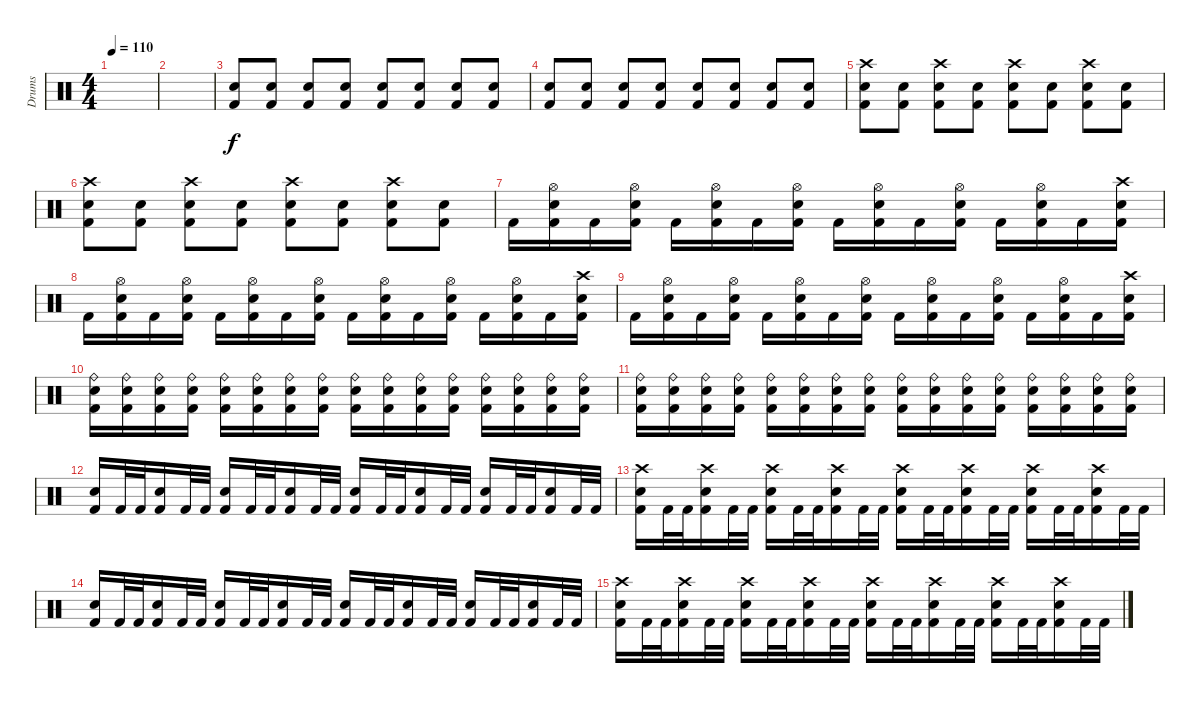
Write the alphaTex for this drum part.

\track ("Drums" "Drums") {instrument percussion}
\staff {score}
\articulation defaults
\ts (4 4)
\tempo 110
\clef neutral
\ks c
|
|
("Electric Snare (hit)" "Kick (hit) 2").8 ("Electric Snare (hit)" "Kick (hit) 2").8 ("Electric Snare (hit)" "Kick (hit) 2").8 ("Electric Snare (hit)" "Kick (hit) 2").8 ("Electric Snare (hit)" "Kick (hit) 2").8 ("Electric Snare (hit)" "Kick (hit) 2").8 ("Electric Snare (hit)" "Kick (hit) 2").8 ("Electric Snare (hit)" "Kick (hit) 2").8 |
("Electric Snare (hit)" "Kick (hit) 2").8 ("Electric Snare (hit)" "Kick (hit) 2").8 ("Electric Snare (hit)" "Kick (hit) 2").8 ("Electric Snare (hit)" "Kick (hit) 2").8 ("Electric Snare (hit)" "Kick (hit) 2").8 ("Electric Snare (hit)" "Kick (hit) 2").8 ("Electric Snare (hit)" "Kick (hit) 2").8 ("Electric Snare (hit)" "Kick (hit) 2").8 |
("Crash high (hit)" "Electric Snare (hit)" "Kick (hit) 2").8 ("Electric Snare (hit)" "Kick (hit) 2").8 ("Crash high (hit)" "Electric Snare (hit)" "Kick (hit) 2").8 ("Electric Snare (hit)" "Kick (hit) 2").8 ("Crash high (hit)" "Electric Snare (hit)" "Kick (hit) 2").8 ("Electric Snare (hit)" "Kick (hit) 2").8 ("Crash high (hit)" "Electric Snare (hit)" "Kick (hit) 2").8 ("Electric Snare (hit)" "Kick (hit) 2").8 |
("Crash high (hit)" "Electric Snare (hit)" "Kick (hit) 2").8 ("Electric Snare (hit)" "Kick (hit) 2").8 ("Crash high (hit)" "Electric Snare (hit)" "Kick (hit) 2").8 ("Electric Snare (hit)" "Kick (hit) 2").8 ("Crash high (hit)" "Electric Snare (hit)" "Kick (hit) 2").8 ("Electric Snare (hit)" "Kick (hit) 2").8 ("Crash high (hit)" "Electric Snare (hit)" "Kick (hit) 2").8 ("Electric Snare (hit)" "Kick (hit) 2").8 |
"Kick (hit) 2".16 ("Hi-Hat (open)" "Electric Snare (hit)" "Kick (hit) 2").16 "Kick (hit) 2".16 ("Hi-Hat (open)" "Electric Snare (hit)" "Kick (hit) 2").16 "Kick (hit) 2".16 ("Hi-Hat (open)" "Electric Snare (hit)" "Kick (hit) 2").16 "Kick (hit) 2".16 ("Hi-Hat (open)" "Electric Snare (hit)" "Kick (hit) 2").16 "Kick (hit) 2".16 ("Hi-Hat (open)" "Electric Snare (hit)" "Kick (hit) 2").16 "Kick (hit) 2".16 ("Hi-Hat (open)" "Electric Snare (hit)" "Kick (hit) 2").16 "Kick (hit) 2".16 ("Hi-Hat (open)" "Electric Snare (hit)" "Kick (hit) 2").16 "Kick (hit) 2".16 ("Crash high (hit)" "Electric Snare (hit)" "Kick (hit) 2").16 |
"Kick (hit) 2".16 ("Hi-Hat (open)" "Electric Snare (hit)" "Kick (hit) 2").16 "Kick (hit) 2".16 ("Hi-Hat (open)" "Electric Snare (hit)" "Kick (hit) 2").16 "Kick (hit) 2".16 ("Hi-Hat (open)" "Electric Snare (hit)" "Kick (hit) 2").16 "Kick (hit) 2".16 ("Hi-Hat (open)" "Electric Snare (hit)" "Kick (hit) 2").16 "Kick (hit) 2".16 ("Hi-Hat (open)" "Electric Snare (hit)" "Kick (hit) 2").16 "Kick (hit) 2".16 ("Hi-Hat (open)" "Electric Snare (hit)" "Kick (hit) 2").16 "Kick (hit) 2".16 ("Hi-Hat (open)" "Electric Snare (hit)" "Kick (hit) 2").16 "Kick (hit) 2".16 ("Crash high (hit)" "Electric Snare (hit)" "Kick (hit) 2").16 |
"Kick (hit) 2".16 ("Hi-Hat (open)" "Electric Snare (hit)" "Kick (hit) 2").16 "Kick (hit) 2".16 ("Hi-Hat (open)" "Electric Snare (hit)" "Kick (hit) 2").16 "Kick (hit) 2".16 ("Hi-Hat (open)" "Electric Snare (hit)" "Kick (hit) 2").16 "Kick (hit) 2".16 ("Hi-Hat (open)" "Electric Snare (hit)" "Kick (hit) 2").16 "Kick (hit) 2".16 ("Hi-Hat (open)" "Electric Snare (hit)" "Kick (hit) 2").16 "Kick (hit) 2".16 ("Hi-Hat (open)" "Electric Snare (hit)" "Kick (hit) 2").16 "Kick (hit) 2".16 ("Hi-Hat (open)" "Electric Snare (hit)" "Kick (hit) 2").16 "Kick (hit) 2".16 ("Crash high (hit)" "Electric Snare (hit)" "Kick (hit) 2").16 |
("Ride (bell)" "Electric Snare (hit)" "Kick (hit) 2").16 ("Ride (bell)" "Electric Snare (hit)" "Kick (hit) 2").16 ("Ride (bell)" "Electric Snare (hit)" "Kick (hit) 2").16 ("Ride (bell)" "Electric Snare (hit)" "Kick (hit) 2").16 ("Ride (bell)" "Electric Snare (hit)" "Kick (hit) 2").16 ("Ride (bell)" "Electric Snare (hit)" "Kick (hit) 2").16 ("Ride (bell)" "Electric Snare (hit)" "Kick (hit) 2").16 ("Ride (bell)" "Electric Snare (hit)" "Kick (hit) 2").16 ("Ride (bell)" "Electric Snare (hit)" "Kick (hit) 2").16 ("Ride (bell)" "Electric Snare (hit)" "Kick (hit) 2").16 ("Ride (bell)" "Electric Snare (hit)" "Kick (hit) 2").16 ("Ride (bell)" "Electric Snare (hit)" "Kick (hit) 2").16 ("Ride (bell)" "Electric Snare (hit)" "Kick (hit) 2").16 ("Ride (bell)" "Electric Snare (hit)" "Kick (hit) 2").16 ("Ride (bell)" "Electric Snare (hit)" "Kick (hit) 2").16 ("Ride (bell)" "Electric Snare (hit)" "Kick (hit) 2").16 |
("Ride (bell)" "Electric Snare (hit)" "Kick (hit) 2").16 ("Ride (bell)" "Electric Snare (hit)" "Kick (hit) 2").16 ("Ride (bell)" "Electric Snare (hit)" "Kick (hit) 2").16 ("Ride (bell)" "Electric Snare (hit)" "Kick (hit) 2").16 ("Ride (bell)" "Electric Snare (hit)" "Kick (hit) 2").16 ("Ride (bell)" "Electric Snare (hit)" "Kick (hit) 2").16 ("Ride (bell)" "Electric Snare (hit)" "Kick (hit) 2").16 ("Ride (bell)" "Electric Snare (hit)" "Kick (hit) 2").16 ("Ride (bell)" "Electric Snare (hit)" "Kick (hit) 2").16 ("Ride (bell)" "Electric Snare (hit)" "Kick (hit) 2").16 ("Ride (bell)" "Electric Snare (hit)" "Kick (hit) 2").16 ("Ride (bell)" "Electric Snare (hit)" "Kick (hit) 2").16 ("Ride (bell)" "Electric Snare (hit)" "Kick (hit) 2").16 ("Ride (bell)" "Electric Snare (hit)" "Kick (hit) 2").16 ("Ride (bell)" "Electric Snare (hit)" "Kick (hit) 2").16 ("Ride (bell)" "Electric Snare (hit)" "Kick (hit) 2").16 |
("Electric Snare (hit)" "Kick (hit) 2").16 "Kick (hit) 2".32 "Kick (hit) 2".32 ("Electric Snare (hit)" "Kick (hit) 2").16 "Kick (hit) 2".32 "Kick (hit) 2".32 ("Electric Snare (hit)" "Kick (hit) 2").16 "Kick (hit) 2".32 "Kick (hit) 2".32 ("Electric Snare (hit)" "Kick (hit) 2").16 "Kick (hit) 2".32 "Kick (hit) 2".32 ("Electric Snare (hit)" "Kick (hit) 2").16 "Kick (hit) 2".32 "Kick (hit) 2".32 ("Electric Snare (hit)" "Kick (hit) 2").16 "Kick (hit) 2".32 "Kick (hit) 2".32 ("Electric Snare (hit)" "Kick (hit) 2").16 "Kick (hit) 2".32 "Kick (hit) 2".32 ("Electric Snare (hit)" "Kick (hit) 2").16 "Kick (hit) 2".32 "Kick (hit) 2".32 |
("Crash high (hit)" "Electric Snare (hit)" "Kick (hit) 2").16 "Kick (hit) 2".32 "Kick (hit) 2".32 ("Crash high (hit)" "Electric Snare (hit)" "Kick (hit) 2").16 "Kick (hit) 2".32 "Kick (hit) 2".32 ("Crash high (hit)" "Electric Snare (hit)" "Kick (hit) 2").16 "Kick (hit) 2".32 "Kick (hit) 2".32 ("Crash high (hit)" "Electric Snare (hit)" "Kick (hit) 2").16 "Kick (hit) 2".32 "Kick (hit) 2".32 ("Crash high (hit)" "Electric Snare (hit)" "Kick (hit) 2").16 "Kick (hit) 2".32 "Kick (hit) 2".32 ("Crash high (hit)" "Electric Snare (hit)" "Kick (hit) 2").16 "Kick (hit) 2".32 "Kick (hit) 2".32 ("Crash high (hit)" "Electric Snare (hit)" "Kick (hit) 2").16 "Kick (hit) 2".32 "Kick (hit) 2".32 ("Crash high (hit)" "Electric Snare (hit)" "Kick (hit) 2").16 "Kick (hit) 2".32 "Kick (hit) 2".32 |
("Electric Snare (hit)" "Kick (hit) 2").16 "Kick (hit) 2".32 "Kick (hit) 2".32 ("Electric Snare (hit)" "Kick (hit) 2").16 "Kick (hit) 2".32 "Kick (hit) 2".32 ("Electric Snare (hit)" "Kick (hit) 2").16 "Kick (hit) 2".32 "Kick (hit) 2".32 ("Electric Snare (hit)" "Kick (hit) 2").16 "Kick (hit) 2".32 "Kick (hit) 2".32 ("Electric Snare (hit)" "Kick (hit) 2").16 "Kick (hit) 2".32 "Kick (hit) 2".32 ("Electric Snare (hit)" "Kick (hit) 2").16 "Kick (hit) 2".32 "Kick (hit) 2".32 ("Electric Snare (hit)" "Kick (hit) 2").16 "Kick (hit) 2".32 "Kick (hit) 2".32 ("Electric Snare (hit)" "Kick (hit) 2").16 "Kick (hit) 2".32 "Kick (hit) 2".32 |
("Crash high (hit)" "Electric Snare (hit)" "Kick (hit) 2").16 "Kick (hit) 2".32 "Kick (hit) 2".32 ("Crash high (hit)" "Electric Snare (hit)" "Kick (hit) 2").16 "Kick (hit) 2".32 "Kick (hit) 2".32 ("Crash high (hit)" "Electric Snare (hit)" "Kick (hit) 2").16 "Kick (hit) 2".32 "Kick (hit) 2".32 ("Crash high (hit)" "Electric Snare (hit)" "Kick (hit) 2").16 "Kick (hit) 2".32 "Kick (hit) 2".32 ("Crash high (hit)" "Electric Snare (hit)" "Kick (hit) 2").16 "Kick (hit) 2".32 "Kick (hit) 2".32 ("Crash high (hit)" "Electric Snare (hit)" "Kick (hit) 2").16 "Kick (hit) 2".32 "Kick (hit) 2".32 ("Crash high (hit)" "Electric Snare (hit)" "Kick (hit) 2").16 "Kick (hit) 2".32 "Kick (hit) 2".32 ("Crash high (hit)" "Electric Snare (hit)" "Kick (hit) 2").16 "Kick (hit) 2".32 "Kick (hit) 2".32
